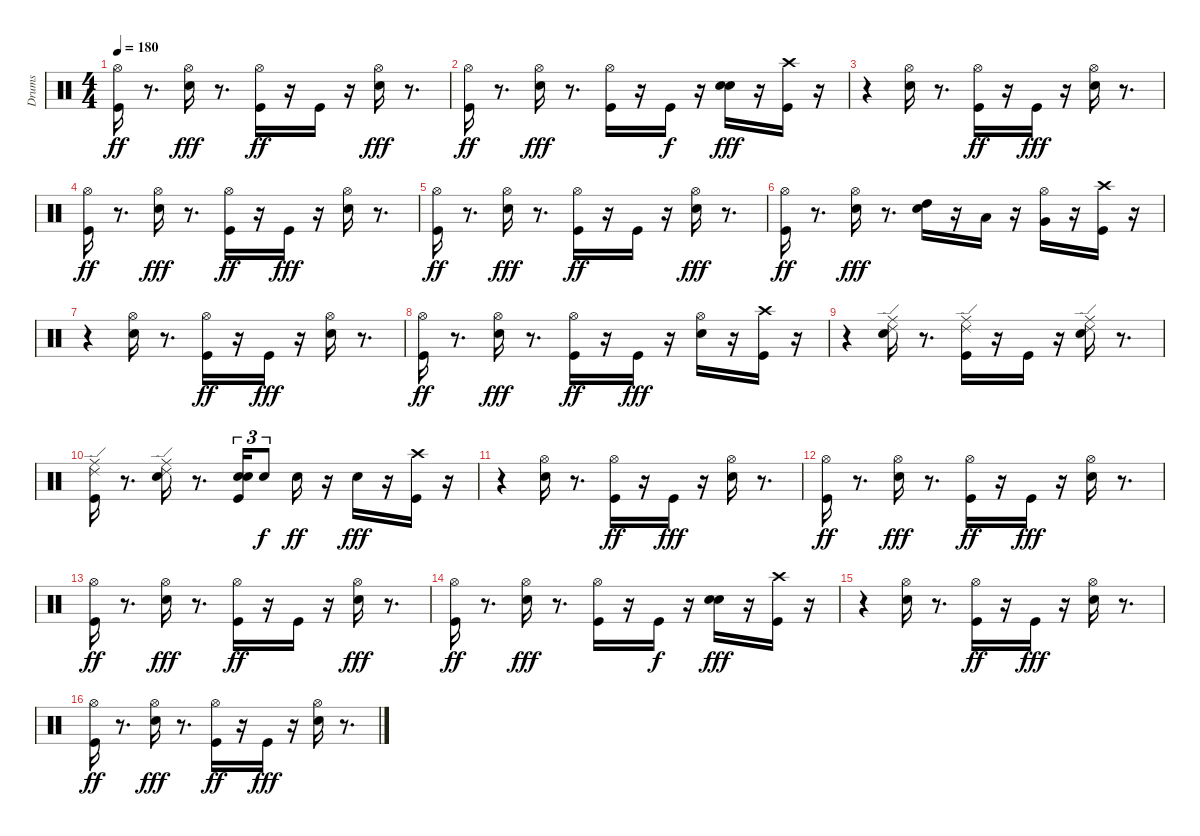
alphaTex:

\track ("Drums" "Drums") {instrument percussion}
\staff {score}
\articulation defaults
\ts (4 4)
\tempo 180
\clef neutral
\ks c
("Kick (hit)" "Hi-Hat (open)").16{dy ff} r.8{d} ("Electric Snare (hit)" "Hi-Hat (open)").16{dy fff} r.8{d} ("Kick (hit)" "Hi-Hat (open)").16{dy ff} r.16 "Kick (hit)".16 r.16 ("Electric Snare (hit)" "Hi-Hat (open)").16{dy fff} r.8{d} |
("Kick (hit)" "Hi-Hat (open)").16{dy ff} r.8{d} ("Electric Snare (hit)" "Hi-Hat (open)").16{dy fff} r.8{d} ("Hi-Hat (open)" "Kick (hit)").16 r.16 "Kick (hit)".16{dy f} r.16 ("Snare (hit) 2" "Electric Snare (hit)").16{dy fff} r.16 ("Crash high (hit)" "Kick (hit)").16 r.16 |
r.4 ("Electric Snare (hit)" "Hi-Hat (open)").16 r.8{d} ("Kick (hit)" "Hi-Hat (open)").16{dy ff} r.16 "Kick (hit)".16{dy fff} r.16 ("Hi-Hat (open)" "Electric Snare (hit)").16 r.8{d} |
("Kick (hit)" "Hi-Hat (open)").16{dy ff} r.8{d} ("Electric Snare (hit)" "Hi-Hat (open)").16{dy fff} r.8{d} ("Kick (hit)" "Hi-Hat (open)").16{dy ff} r.16 "Kick (hit)".16{dy fff} r.16 ("Electric Snare (hit)" "Hi-Hat (open)").16 r.8{d} |
("Kick (hit)" "Hi-Hat (open)").16{dy ff} r.8{d} ("Electric Snare (hit)" "Hi-Hat (open)").16{dy fff} r.8{d} ("Kick (hit)" "Hi-Hat (open)").16{dy ff} r.16 "Kick (hit)".16 r.16 ("Electric Snare (hit)" "Hi-Hat (open)").16{dy fff} r.8{d} |
("Kick (hit)" "Hi-Hat (open)").16{dy ff} r.8{d} ("Electric Snare (hit)" "Hi-Hat (open)").16{dy fff} r.8{d} ("Electric Snare (hit)" "High Tom (hit)").16 r.16 "Low Tom (hit)".16 r.16 ("Hi-Hat (open)" "Very Low Tom (hit)").16 r.16 ("Kick (hit)" "Crash high (hit)").16 r.16 |
r.4 ("Electric Snare (hit)" "Hi-Hat (open)").16 r.8{d} ("Kick (hit)" "Hi-Hat (open)").16{dy ff} r.16 "Kick (hit)".16{dy fff} r.16 ("Hi-Hat (open)" "Electric Snare (hit)").16 r.8{d} |
("Kick (hit)" "Hi-Hat (open)").16{dy ff} r.8{d} ("Electric Snare (hit)" "Hi-Hat (open)").16{dy fff} r.8{d} ("Kick (hit)" "Hi-Hat (open)").16{dy ff} r.16 "Kick (hit)".16{dy fff} r.16 ("Hi-Hat (open)" "Electric Snare (hit)").16 r.16 ("Kick (hit)" "Crash high (hit)").16 r.16 |
r.4 ("Ride (edge) 2" "Ride (middle)" "Electric Snare (hit)").16 r.8{d} ("Ride (middle)" "Ride (edge) 2" "Kick (hit)").16 r.16 "Kick (hit)".16 r.16 ("Ride (edge) 2" "Ride (middle)" "Electric Snare (hit)").16 r.8{d} |
("Ride (middle)" "Ride (edge) 2" "Kick (hit)").16 r.8{d} ("Ride (middle)" "Ride (edge) 2" "Electric Snare (hit)").16 r.8{d} ("Snare (hit) 2" "Kick (hit)" "Electric Snare (hit)").16{tu (3 2)} "Electric Snare (hit)".8{tu (3 2) dy f} "Electric Snare (hit)".16{dy ff} r.16 "Electric Snare (hit)".16{dy fff} r.16 ("Crash high (hit)" "Kick (hit)").16 r.16 |
r.4 ("Electric Snare (hit)" "Hi-Hat (open)").16 r.8{d} ("Kick (hit)" "Hi-Hat (open)").16{dy ff} r.16 "Kick (hit)".16{dy fff} r.16 ("Hi-Hat (open)" "Electric Snare (hit)").16 r.8{d} |
("Kick (hit)" "Hi-Hat (open)").16{dy ff} r.8{d} ("Electric Snare (hit)" "Hi-Hat (open)").16{dy fff} r.8{d} ("Kick (hit)" "Hi-Hat (open)").16{dy ff} r.16 "Kick (hit)".16{dy fff} r.16 ("Electric Snare (hit)" "Hi-Hat (open)").16 r.8{d} |
("Kick (hit)" "Hi-Hat (open)").16{dy ff} r.8{d} ("Electric Snare (hit)" "Hi-Hat (open)").16{dy fff} r.8{d} ("Kick (hit)" "Hi-Hat (open)").16{dy ff} r.16 "Kick (hit)".16 r.16 ("Electric Snare (hit)" "Hi-Hat (open)").16{dy fff} r.8{d} |
("Kick (hit)" "Hi-Hat (open)").16{dy ff} r.8{d} ("Electric Snare (hit)" "Hi-Hat (open)").16{dy fff} r.8{d} ("Hi-Hat (open)" "Kick (hit)").16 r.16 "Kick (hit)".16{dy f} r.16 ("Snare (hit) 2" "Electric Snare (hit)").16{dy fff} r.16 ("Crash high (hit)" "Kick (hit)").16 r.16 |
r.4 ("Electric Snare (hit)" "Hi-Hat (open)").16 r.8{d} ("Kick (hit)" "Hi-Hat (open)").16{dy ff} r.16 "Kick (hit)".16{dy fff} r.16 ("Hi-Hat (open)" "Electric Snare (hit)").16 r.8{d} |
("Kick (hit)" "Hi-Hat (open)").16{dy ff} r.8{d} ("Electric Snare (hit)" "Hi-Hat (open)").16{dy fff} r.8{d} ("Kick (hit)" "Hi-Hat (open)").16{dy ff} r.16 "Kick (hit)".16{dy fff} r.16 ("Electric Snare (hit)" "Hi-Hat (open)").16 r.8{d}
